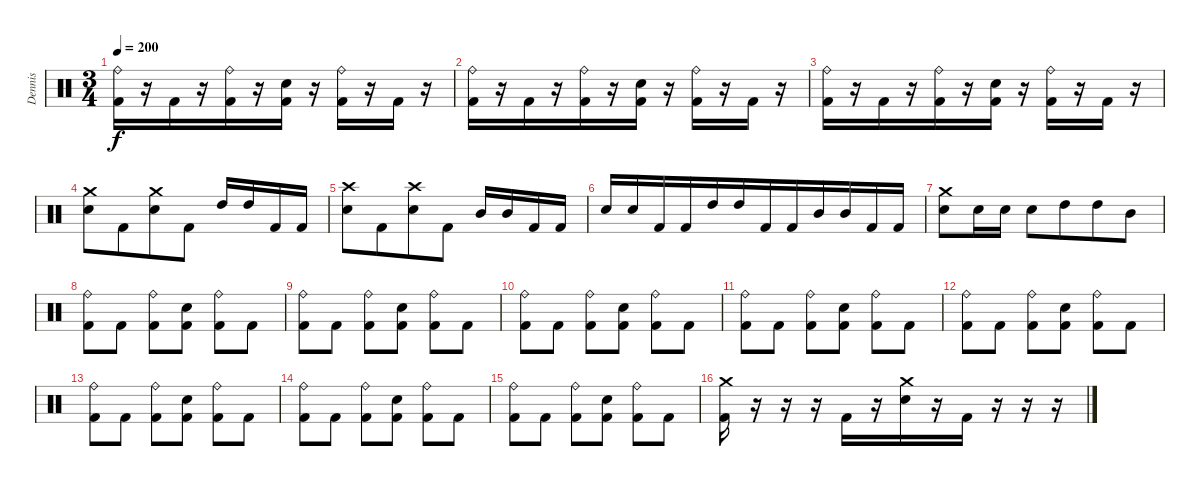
\track ("Dennis" "Dennis") {instrument percussion}
\staff {score}
\articulation defaults
\ts (3 4)
\tempo 200
\clef neutral
\ks c
("Ride (bell)" "Kick (hit) 2").16{dy f beam merge} r.16 "Kick (hit) 2".16{beam merge} r.16 ("Ride (bell)" "Kick (hit) 2").16 r.16 ("Electric Snare (hit)" "Kick (hit) 2").16 r.16 ("Ride (bell)" "Kick (hit) 2").16{beam merge} r.16 "Kick (hit) 2".16 r.16 |
("Ride (bell)" "Kick (hit) 2").16{beam merge} r.16 "Kick (hit) 2".16{beam merge} r.16 ("Ride (bell)" "Kick (hit) 2").16 r.16 ("Electric Snare (hit)" "Kick (hit) 2").16 r.16 ("Ride (bell)" "Kick (hit) 2").16{beam merge} r.16 "Kick (hit) 2".16 r.16 |
("Ride (bell)" "Kick (hit) 2").16{beam merge} r.16 "Kick (hit) 2".16{beam merge} r.16 ("Ride (bell)" "Kick (hit) 2").16 r.16 ("Electric Snare (hit)" "Kick (hit) 2").16 r.16 ("Ride (bell)" "Kick (hit) 2").16{beam merge} r.16 "Kick (hit) 2".16 r.16 |
("Crash medium (hit)" "Electric Snare (hit)").8 "Kick (hit) 2".8{beam merge} ("Crash medium (hit)" "Electric Snare (hit)").8 "Kick (hit) 2".8 "High Tom (hit)".16{beam merge} "High Tom (hit)".16 "Kick (hit) 2".16 "Kick (hit) 2".16 |
("Crash high (hit)" "Electric Snare (hit)").8 "Kick (hit) 2".8{beam merge} ("Crash high (hit)" "Electric Snare (hit)").8 "Kick (hit) 2".8 "Mid Tom (hit)".16{beam merge} "Mid Tom (hit)".16 "Kick (hit) 2".16 "Kick (hit) 2".16 |
"Electric Snare (hit)".16 "Electric Snare (hit)".16{beam merge} "Kick (hit) 2".16 "Kick (hit) 2".16{beam merge} "High Tom (hit)".16 "High Tom (hit)".16 "Kick (hit) 2".16 "Kick (hit) 2".16{beam merge} "Mid Tom (hit)".16 "Mid Tom (hit)".16 "Kick (hit) 2".16 "Kick (hit) 2".16 |
("Crash medium (hit)" "Electric Snare (hit)").8 "Electric Snare (hit)".16 "Electric Snare (hit)".16 "Electric Snare (hit)".8{beam merge} "High Tom (hit)".8{beam merge} "High Tom (hit)".8{beam merge} "Mid Tom (hit)".8 |
("Ride (bell)" "Kick (hit) 2").8 "Kick (hit) 2".8 ("Ride (bell)" "Kick (hit) 2").8 ("Electric Snare (hit)" "Kick (hit) 2").8 ("Ride (bell)" "Kick (hit) 2").8{beam merge} "Kick (hit) 2".8 |
("Ride (bell)" "Kick (hit) 2").8 "Kick (hit) 2".8 ("Ride (bell)" "Kick (hit) 2").8 ("Electric Snare (hit)" "Kick (hit) 2").8 ("Ride (bell)" "Kick (hit) 2").8{beam merge} "Kick (hit) 2".8 |
("Ride (bell)" "Kick (hit) 2").8 "Kick (hit) 2".8 ("Ride (bell)" "Kick (hit) 2").8 ("Electric Snare (hit)" "Kick (hit) 2").8 ("Ride (bell)" "Kick (hit) 2").8{beam merge} "Kick (hit) 2".8 |
("Ride (bell)" "Kick (hit) 2").8 "Kick (hit) 2".8 ("Ride (bell)" "Kick (hit) 2").8 ("Electric Snare (hit)" "Kick (hit) 2").8 ("Ride (bell)" "Kick (hit) 2").8{beam merge} "Kick (hit) 2".8 |
("Ride (bell)" "Kick (hit) 2").8 "Kick (hit) 2".8 ("Ride (bell)" "Kick (hit) 2").8 ("Electric Snare (hit)" "Kick (hit) 2").8 ("Ride (bell)" "Kick (hit) 2").8{beam merge} "Kick (hit) 2".8 |
("Ride (bell)" "Kick (hit) 2").8 "Kick (hit) 2".8 ("Ride (bell)" "Kick (hit) 2").8 ("Electric Snare (hit)" "Kick (hit) 2").8 ("Ride (bell)" "Kick (hit) 2").8{beam merge} "Kick (hit) 2".8 |
("Ride (bell)" "Kick (hit) 2").8 "Kick (hit) 2".8 ("Ride (bell)" "Kick (hit) 2").8 ("Electric Snare (hit)" "Kick (hit) 2").8 ("Ride (bell)" "Kick (hit) 2").8{beam merge} "Kick (hit) 2".8 |
("Ride (bell)" "Kick (hit) 2").8 "Kick (hit) 2".8 ("Ride (bell)" "Kick (hit) 2").8 ("Electric Snare (hit)" "Kick (hit) 2").8 ("Ride (bell)" "Kick (hit) 2").8{beam merge} "Kick (hit) 2".8 |
("Crash medium (hit)" "Kick (hit) 2").16 r.16 r.16{beam merge} r.16{beam merge} "Kick (hit) 2".16{beam merge} r.16 ("Crash medium (hit)" "Electric Snare (hit)").16{beam merge} r.16 "Kick (hit) 2".16 r.16 r.16 r.16
